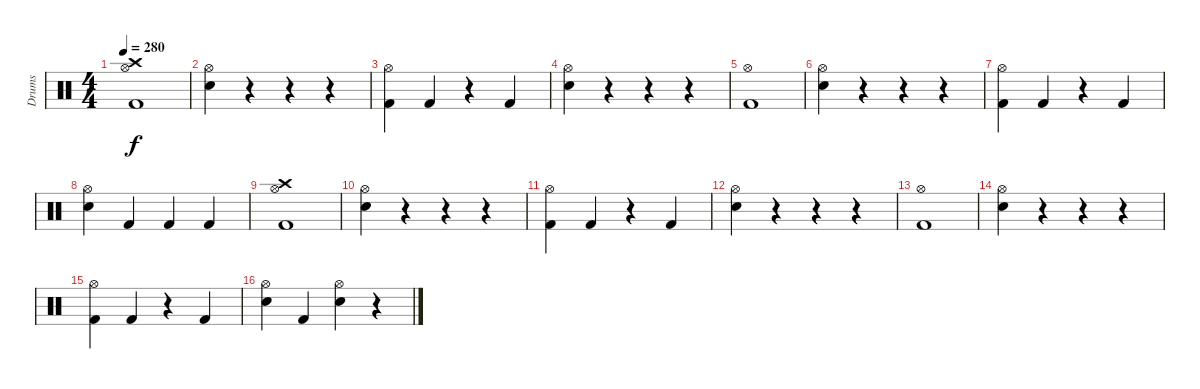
\track ("Drums" "Drums") {instrument percussion}
\staff {score}
\articulation defaults
\ts (4 4)
\tempo 280
\clef neutral
\ks c
("Hi-Hat (open)" "Crash high (hit)" "Kick (hit) 2").1{dy f} |
("Hi-Hat (open)" "Electric Snare (hit)").4 r.4 r.4 r.4 |
("Hi-Hat (open)" "Kick (hit) 2").4 "Kick (hit) 2".4 r.4 "Kick (hit) 2".4 |
("Hi-Hat (open)" "Electric Snare (hit)").4 r.4 r.4 r.4 |
("Hi-Hat (open)" "Kick (hit) 2").1 |
("Hi-Hat (open)" "Electric Snare (hit)").4 r.4 r.4 r.4 |
("Hi-Hat (open)" "Kick (hit) 2").4 "Kick (hit) 2".4 r.4 "Kick (hit) 2".4 |
("Hi-Hat (open)" "Electric Snare (hit)").4 "Kick (hit) 2".4 "Kick (hit) 2".4 "Kick (hit) 2".4 |
("Hi-Hat (open)" "Crash high (hit)" "Kick (hit) 2").1 |
("Hi-Hat (open)" "Electric Snare (hit)").4 r.4 r.4 r.4 |
("Hi-Hat (open)" "Kick (hit) 2").4 "Kick (hit) 2".4 r.4 "Kick (hit) 2".4 |
("Hi-Hat (open)" "Electric Snare (hit)").4 r.4 r.4 r.4 |
("Hi-Hat (open)" "Kick (hit) 2").1 |
("Hi-Hat (open)" "Electric Snare (hit)").4 r.4 r.4 r.4 |
("Hi-Hat (open)" "Kick (hit) 2").4 "Kick (hit) 2".4 r.4 "Kick (hit) 2".4 |
("Hi-Hat (open)" "Electric Snare (hit)").4 "Kick (hit) 2".4 ("Hi-Hat (open)" "Electric Snare (hit)").4 r.4
